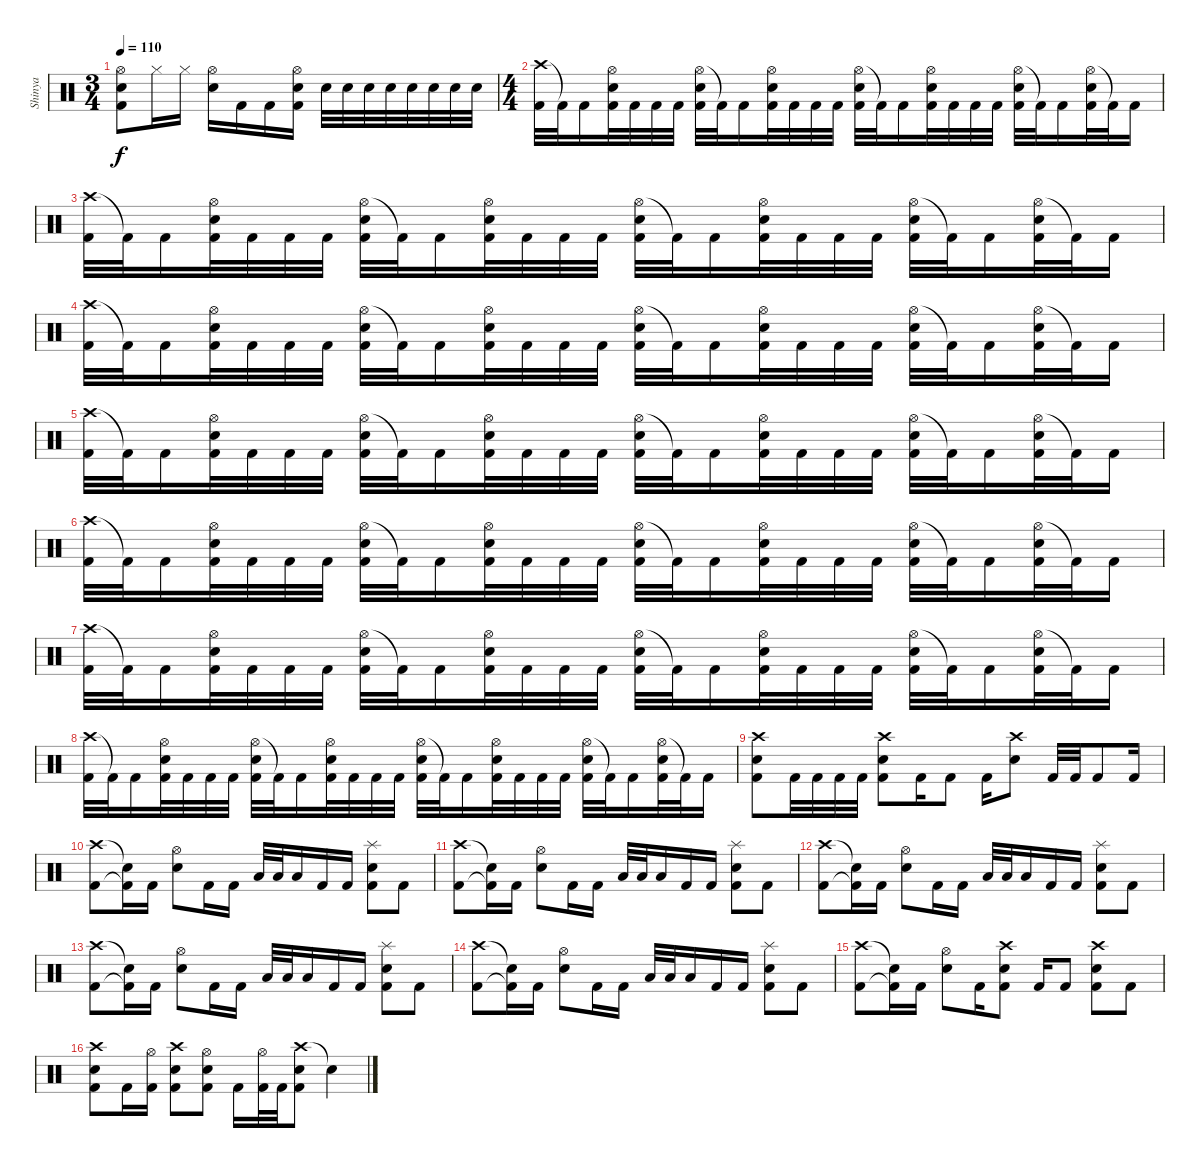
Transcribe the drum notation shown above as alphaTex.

\track ("Shinya" "Shinya") {instrument percussion}
\staff {score}
\articulation defaults
\ts (3 4)
\tempo 110
\clef neutral
\ks c
("Hi-Hat (open)" "Electric Snare (hit)" "Kick (hit) 2").8{dy f} "Hi-Hat (closed)".16 "Hi-Hat (closed)".16 ("Hi-Hat (open)" "Electric Snare (hit)").16 "Kick (hit) 2".16 "Kick (hit) 2".16 ("Hi-Hat (open)" "Electric Snare (hit)" "Kick (hit) 2").16 "Electric Snare (hit)".32 "Electric Snare (hit)".32 "Electric Snare (hit)".32 "Electric Snare (hit)".32 "Electric Snare (hit)".32 "Electric Snare (hit)".32 "Electric Snare (hit)".32 "Electric Snare (hit)".32 |
\ts (4 4)
("Crash high (hit)" "Kick (hit) 2").32 "Kick (hit) 2"{t}.32 "Kick (hit) 2".16 ("Hi-Hat (open)" "Electric Snare (hit)" "Kick (hit) 2").32 "Kick (hit) 2".32 "Kick (hit) 2".32 "Kick (hit) 2".32 ("Hi-Hat (open)" "Electric Snare (hit)" "Kick (hit) 2").32 "Kick (hit) 2"{t}.32 "Kick (hit) 2".16 ("Hi-Hat (open)" "Electric Snare (hit)" "Kick (hit) 2").32 "Kick (hit) 2".32 "Kick (hit) 2".32 "Kick (hit) 2".32 ("Hi-Hat (open)" "Electric Snare (hit)" "Kick (hit) 2").32 "Kick (hit) 2"{t}.32 "Kick (hit) 2".16 ("Hi-Hat (open)" "Electric Snare (hit)" "Kick (hit) 2").32 "Kick (hit) 2".32 "Kick (hit) 2".32 "Kick (hit) 2".32 ("Hi-Hat (open)" "Electric Snare (hit)" "Kick (hit) 2").32 "Kick (hit) 2"{t}.32 "Kick (hit) 2".16 ("Hi-Hat (open)" "Electric Snare (hit)" "Kick (hit) 2").32 "Kick (hit) 2"{t}.32 "Kick (hit) 2".16 |
("Crash high (hit)" "Kick (hit) 2").32 "Kick (hit) 2"{t}.32 "Kick (hit) 2".16 ("Hi-Hat (open)" "Electric Snare (hit)" "Kick (hit) 2").32 "Kick (hit) 2".32 "Kick (hit) 2".32 "Kick (hit) 2".32 ("Hi-Hat (open)" "Electric Snare (hit)" "Kick (hit) 2").32 "Kick (hit) 2"{t}.32 "Kick (hit) 2".16 ("Hi-Hat (open)" "Electric Snare (hit)" "Kick (hit) 2").32 "Kick (hit) 2".32 "Kick (hit) 2".32 "Kick (hit) 2".32 ("Hi-Hat (open)" "Electric Snare (hit)" "Kick (hit) 2").32 "Kick (hit) 2"{t}.32 "Kick (hit) 2".16 ("Hi-Hat (open)" "Electric Snare (hit)" "Kick (hit) 2").32 "Kick (hit) 2".32 "Kick (hit) 2".32 "Kick (hit) 2".32 ("Hi-Hat (open)" "Electric Snare (hit)" "Kick (hit) 2").32 "Kick (hit) 2"{t}.32 "Kick (hit) 2".16 ("Hi-Hat (open)" "Electric Snare (hit)" "Kick (hit) 2").32 "Kick (hit) 2"{t}.32 "Kick (hit) 2".16 |
("Crash high (hit)" "Kick (hit) 2").32 "Kick (hit) 2"{t}.32 "Kick (hit) 2".16 ("Hi-Hat (open)" "Electric Snare (hit)" "Kick (hit) 2").32 "Kick (hit) 2".32 "Kick (hit) 2".32 "Kick (hit) 2".32 ("Hi-Hat (open)" "Electric Snare (hit)" "Kick (hit) 2").32 "Kick (hit) 2"{t}.32 "Kick (hit) 2".16 ("Hi-Hat (open)" "Electric Snare (hit)" "Kick (hit) 2").32 "Kick (hit) 2".32 "Kick (hit) 2".32 "Kick (hit) 2".32 ("Hi-Hat (open)" "Electric Snare (hit)" "Kick (hit) 2").32 "Kick (hit) 2"{t}.32 "Kick (hit) 2".16 ("Hi-Hat (open)" "Electric Snare (hit)" "Kick (hit) 2").32 "Kick (hit) 2".32 "Kick (hit) 2".32 "Kick (hit) 2".32 ("Hi-Hat (open)" "Electric Snare (hit)" "Kick (hit) 2").32 "Kick (hit) 2"{t}.32 "Kick (hit) 2".16 ("Hi-Hat (open)" "Electric Snare (hit)" "Kick (hit) 2").32 "Kick (hit) 2"{t}.32 "Kick (hit) 2".16 |
("Crash high (hit)" "Kick (hit) 2").32 "Kick (hit) 2"{t}.32 "Kick (hit) 2".16 ("Hi-Hat (open)" "Electric Snare (hit)" "Kick (hit) 2").32 "Kick (hit) 2".32 "Kick (hit) 2".32 "Kick (hit) 2".32 ("Hi-Hat (open)" "Electric Snare (hit)" "Kick (hit) 2").32 "Kick (hit) 2"{t}.32 "Kick (hit) 2".16 ("Hi-Hat (open)" "Electric Snare (hit)" "Kick (hit) 2").32 "Kick (hit) 2".32 "Kick (hit) 2".32 "Kick (hit) 2".32 ("Hi-Hat (open)" "Electric Snare (hit)" "Kick (hit) 2").32 "Kick (hit) 2"{t}.32 "Kick (hit) 2".16 ("Hi-Hat (open)" "Electric Snare (hit)" "Kick (hit) 2").32 "Kick (hit) 2".32 "Kick (hit) 2".32 "Kick (hit) 2".32 ("Hi-Hat (open)" "Electric Snare (hit)" "Kick (hit) 2").32 "Kick (hit) 2"{t}.32 "Kick (hit) 2".16 ("Hi-Hat (open)" "Electric Snare (hit)" "Kick (hit) 2").32 "Kick (hit) 2"{t}.32 "Kick (hit) 2".16 |
("Crash high (hit)" "Kick (hit) 2").32 "Kick (hit) 2"{t}.32 "Kick (hit) 2".16 ("Hi-Hat (open)" "Electric Snare (hit)" "Kick (hit) 2").32 "Kick (hit) 2".32 "Kick (hit) 2".32 "Kick (hit) 2".32 ("Hi-Hat (open)" "Electric Snare (hit)" "Kick (hit) 2").32 "Kick (hit) 2"{t}.32 "Kick (hit) 2".16 ("Hi-Hat (open)" "Electric Snare (hit)" "Kick (hit) 2").32 "Kick (hit) 2".32 "Kick (hit) 2".32 "Kick (hit) 2".32 ("Hi-Hat (open)" "Electric Snare (hit)" "Kick (hit) 2").32 "Kick (hit) 2"{t}.32 "Kick (hit) 2".16 ("Hi-Hat (open)" "Electric Snare (hit)" "Kick (hit) 2").32 "Kick (hit) 2".32 "Kick (hit) 2".32 "Kick (hit) 2".32 ("Hi-Hat (open)" "Electric Snare (hit)" "Kick (hit) 2").32 "Kick (hit) 2"{t}.32 "Kick (hit) 2".16 ("Hi-Hat (open)" "Electric Snare (hit)" "Kick (hit) 2").32 "Kick (hit) 2"{t}.32 "Kick (hit) 2".16 |
("Crash high (hit)" "Kick (hit) 2").32 "Kick (hit) 2"{t}.32 "Kick (hit) 2".16 ("Hi-Hat (open)" "Electric Snare (hit)" "Kick (hit) 2").32 "Kick (hit) 2".32 "Kick (hit) 2".32 "Kick (hit) 2".32 ("Hi-Hat (open)" "Electric Snare (hit)" "Kick (hit) 2").32 "Kick (hit) 2"{t}.32 "Kick (hit) 2".16 ("Hi-Hat (open)" "Electric Snare (hit)" "Kick (hit) 2").32 "Kick (hit) 2".32 "Kick (hit) 2".32 "Kick (hit) 2".32 ("Hi-Hat (open)" "Electric Snare (hit)" "Kick (hit) 2").32 "Kick (hit) 2"{t}.32 "Kick (hit) 2".16 ("Hi-Hat (open)" "Electric Snare (hit)" "Kick (hit) 2").32 "Kick (hit) 2".32 "Kick (hit) 2".32 "Kick (hit) 2".32 ("Hi-Hat (open)" "Electric Snare (hit)" "Kick (hit) 2").32 "Kick (hit) 2"{t}.32 "Kick (hit) 2".16 ("Hi-Hat (open)" "Electric Snare (hit)" "Kick (hit) 2").32 "Kick (hit) 2"{t}.32 "Kick (hit) 2".16 |
("Crash high (hit)" "Kick (hit) 2").32 "Kick (hit) 2"{t}.32 "Kick (hit) 2".16 ("Hi-Hat (open)" "Electric Snare (hit)" "Kick (hit) 2").32 "Kick (hit) 2".32 "Kick (hit) 2".32 "Kick (hit) 2".32 ("Hi-Hat (open)" "Electric Snare (hit)" "Kick (hit) 2").32 "Kick (hit) 2"{t}.32 "Kick (hit) 2".16 ("Hi-Hat (open)" "Electric Snare (hit)" "Kick (hit) 2").32 "Kick (hit) 2".32 "Kick (hit) 2".32 "Kick (hit) 2".32 ("Hi-Hat (open)" "Electric Snare (hit)" "Kick (hit) 2").32 "Kick (hit) 2"{t}.32 "Kick (hit) 2".16 ("Hi-Hat (open)" "Electric Snare (hit)" "Kick (hit) 2").32 "Kick (hit) 2".32 "Kick (hit) 2".32 "Kick (hit) 2".32 ("Hi-Hat (open)" "Electric Snare (hit)" "Kick (hit) 2").32 "Kick (hit) 2"{t}.32 "Kick (hit) 2".16 ("Hi-Hat (open)" "Electric Snare (hit)" "Kick (hit) 2").32 "Kick (hit) 2"{t}.32 "Kick (hit) 2".16 |
("Crash high (hit)" "Electric Snare (hit)" "Kick (hit) 2").8 "Kick (hit) 2".32 "Kick (hit) 2".32 "Kick (hit) 2".32 "Kick (hit) 2".32 ("Crash high (hit)" "Electric Snare (hit)" "Kick (hit) 2").8 "Kick (hit) 2".16 "Kick (hit) 2".8 "Kick (hit) 2".16 ("Crash high (hit)" "Electric Snare (hit)").8 "Kick (hit) 2".32 "Kick (hit) 2".32 "Kick (hit) 2".8 "Kick (hit) 2".16 |
("Crash high (hit)" "Kick (hit) 2").8 ("Snare (hit)"{t} "Kick (hit) 2"{t}).16 "Kick (hit) 2".16 ("Hi-Hat (open)" "Electric Snare (hit)").8 "Kick (hit) 2".16 "Kick (hit) 2".16 "Low Floor Tom (hit)".32 "Low Floor Tom (hit)".32 "Low Floor Tom (hit)".16 "Kick (hit) 2".16 "Kick (hit) 2".16 ("Splash (hit)" "Electric Snare (hit)" "Kick (hit) 2").8 "Kick (hit) 2".8 |
("Crash high (hit)" "Kick (hit) 2").8 ("Snare (hit)"{t} "Kick (hit) 2"{t}).16 "Kick (hit) 2".16 ("Hi-Hat (open)" "Electric Snare (hit)").8 "Kick (hit) 2".16 "Kick (hit) 2".16 "Low Floor Tom (hit)".32 "Low Floor Tom (hit)".32 "Low Floor Tom (hit)".16 "Kick (hit) 2".16 "Kick (hit) 2".16 ("Splash (hit)" "Electric Snare (hit)" "Kick (hit) 2").8 "Kick (hit) 2".8 |
("Crash high (hit)" "Kick (hit) 2").8 ("Snare (hit)"{t} "Kick (hit) 2"{t}).16 "Kick (hit) 2".16 ("Hi-Hat (open)" "Electric Snare (hit)").8 "Kick (hit) 2".16 "Kick (hit) 2".16 "Low Floor Tom (hit)".32 "Low Floor Tom (hit)".32 "Low Floor Tom (hit)".16 "Kick (hit) 2".16 "Kick (hit) 2".16 ("Splash (hit)" "Electric Snare (hit)" "Kick (hit) 2").8 "Kick (hit) 2".8 |
("Crash high (hit)" "Kick (hit) 2").8 ("Snare (hit)"{t} "Kick (hit) 2"{t}).16 "Kick (hit) 2".16 ("Hi-Hat (open)" "Electric Snare (hit)").8 "Kick (hit) 2".16 "Kick (hit) 2".16 "Low Floor Tom (hit)".32 "Low Floor Tom (hit)".32 "Low Floor Tom (hit)".16 "Kick (hit) 2".16 "Kick (hit) 2".16 ("Splash (hit)" "Electric Snare (hit)" "Kick (hit) 2").8 "Kick (hit) 2".8 |
("Crash high (hit)" "Kick (hit) 2").8 ("Snare (hit)"{t} "Kick (hit) 2"{t}).16 "Kick (hit) 2".16 ("Hi-Hat (open)" "Electric Snare (hit)").8 "Kick (hit) 2".16 "Kick (hit) 2".16 "Low Floor Tom (hit)".32 "Low Floor Tom (hit)".32 "Low Floor Tom (hit)".16 "Kick (hit) 2".16 "Kick (hit) 2".16 ("Splash (hit)" "Electric Snare (hit)" "Kick (hit) 2").8 "Kick (hit) 2".8 |
("Crash high (hit)" "Kick (hit) 2").8 ("Snare (hit)"{t} "Kick (hit) 2"{t}).16 "Kick (hit) 2".16 ("Hi-Hat (open)" "Electric Snare (hit)").8 "Kick (hit) 2".16 ("Crash high (hit)" "Electric Snare (hit)" "Kick (hit) 2").8 "Kick (hit) 2".16 "Kick (hit) 2".8 ("Crash high (hit)" "Electric Snare (hit)" "Kick (hit) 2").8 "Kick (hit) 2".8 |
("Crash high (hit)" "Electric Snare (hit)" "Kick (hit) 2").8 "Kick (hit) 2".16 ("Hi-Hat (open)" "Kick (hit) 2").16 ("Crash high (hit)" "Electric Snare (hit)" "Kick (hit) 2").8 ("Hi-Hat (open)" "Electric Snare (hit)" "Kick (hit) 2").8 "Kick (hit) 2".16 ("Hi-Hat (open)" "Kick (hit) 2").32 "Kick (hit) 2".32 ("Crash high (hit)" "Electric Snare (hit)" "Kick (hit) 2").8 "Snare (hit)"{t}.4
